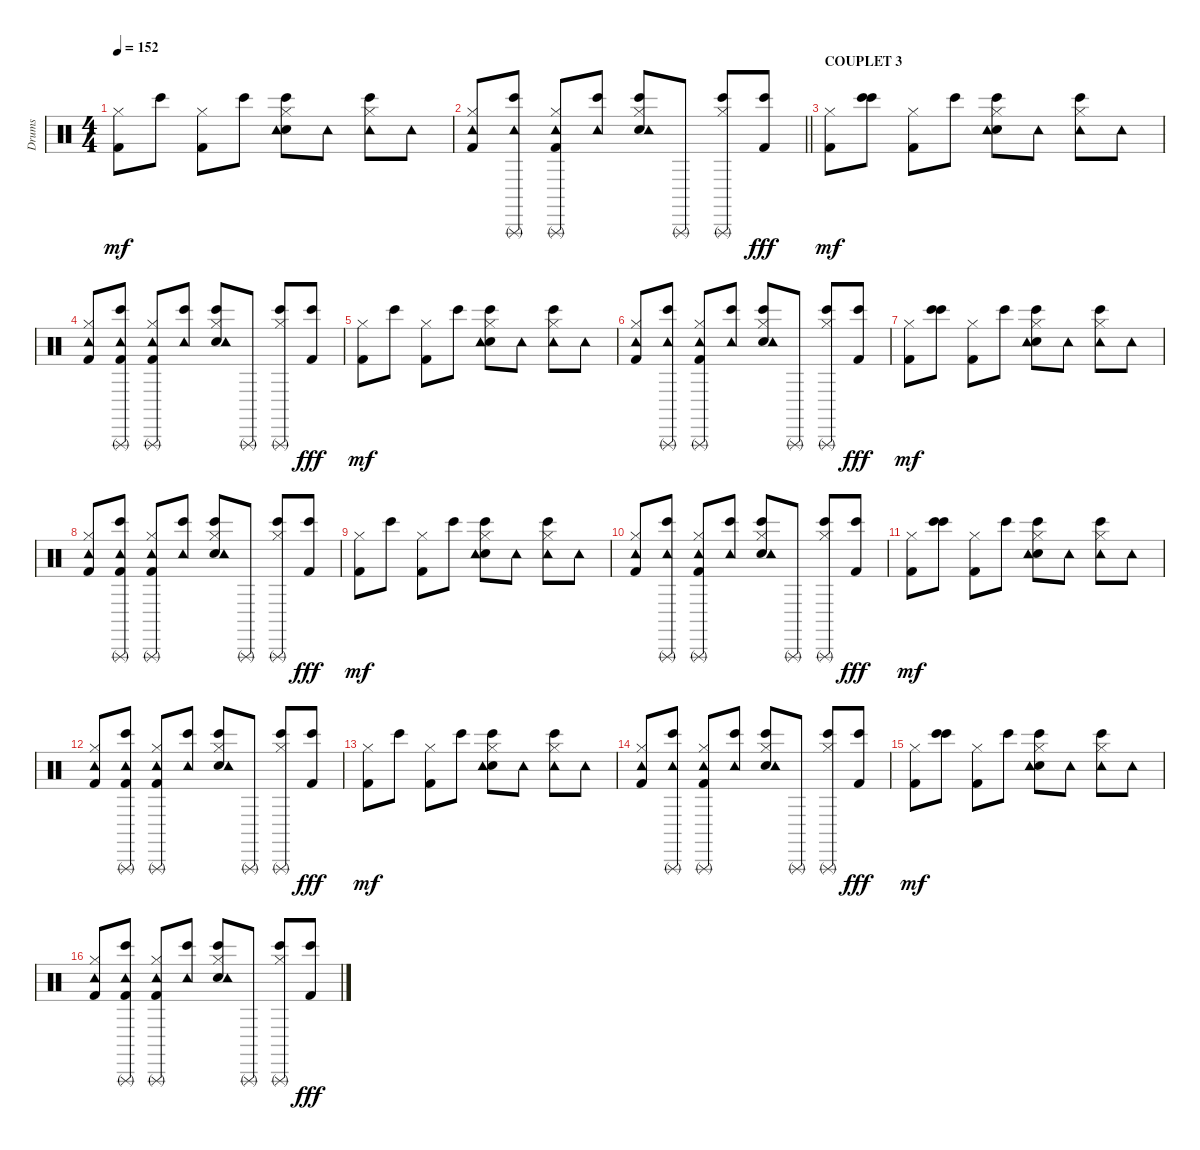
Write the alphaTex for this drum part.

\track ("Drums" "Drums") {instrument percussion}
\staff {score}
\articulation defaults
\ts (4 4)
\tempo 152
\clef neutral
\ks c
("Kick (hit) 2" "Hi-Hat (closed)").8{dy mf} "Bongo High (hit)".8 ("Kick (hit) 2" "Hi-Hat (closed)").8 "Bongo High (hit)".8 ("Bongo High (hit)" "Electric Snare (hit)" "Hi-Hat (closed)" "Tambourine (hit)").8 "Tambourine (hit)".8 ("Tambourine (hit)" "Bongo High (hit)" "Hi-Hat (closed)").8 "Tambourine (hit)".8 |
\barLineRight lightlight
("Tambourine (hit)" "Kick (hit) 2" "Hi-Hat (closed)").8 ("Tambourine (hit)" "Bongo High (hit)" "Triangle (rnute)").8 ("Kick (hit) 2" "Hi-Hat (closed)" "Triangle (rnute)" "Tambourine (hit)").8 ("Tambourine (hit)" "Bongo High (hit)").8 ("Bongo High (hit)" "Electric Snare (hit)" "Hi-Hat (closed)" "Tambourine (hit)").8 "Triangle (rnute)".8 ("Bongo High (hit)" "Hi-Hat (closed)" "Triangle (rnute)").8 ("Bongo High (hit)" "Kick (hit) 2").8{dy fff} |
\section ("" "COUPLET 3")
("Kick (hit) 2" "Hi-Hat (closed)").8{dy mf} ("Bongo High (hit)" "Bongo High (hit)").8 ("Kick (hit) 2" "Hi-Hat (closed)").8 "Bongo High (hit)".8 ("Bongo High (hit)" "Electric Snare (hit)" "Hi-Hat (closed)" "Tambourine (hit)").8 "Tambourine (hit)".8 ("Tambourine (hit)" "Bongo High (hit)" "Hi-Hat (closed)").8 "Tambourine (hit)".8 |
("Tambourine (hit)" "Kick (hit) 2" "Hi-Hat (closed)").8 ("Tambourine (hit)" "Bongo High (hit)" "Kick (hit) 2" "Triangle (rnute)").8 ("Kick (hit) 2" "Hi-Hat (closed)" "Triangle (rnute)" "Tambourine (hit)").8 ("Tambourine (hit)" "Bongo High (hit)").8 ("Bongo High (hit)" "Electric Snare (hit)" "Hi-Hat (closed)" "Tambourine (hit)").8 "Triangle (rnute)".8 ("Bongo High (hit)" "Hi-Hat (closed)" "Triangle (rnute)").8 ("Bongo High (hit)" "Kick (hit) 2").8{dy fff} |
("Kick (hit) 2" "Hi-Hat (closed)").8{dy mf} "Bongo High (hit)".8 ("Kick (hit) 2" "Hi-Hat (closed)").8 "Bongo High (hit)".8 ("Bongo High (hit)" "Electric Snare (hit)" "Hi-Hat (closed)" "Tambourine (hit)").8 "Tambourine (hit)".8 ("Tambourine (hit)" "Bongo High (hit)" "Hi-Hat (closed)").8 "Tambourine (hit)".8 |
("Tambourine (hit)" "Kick (hit) 2" "Hi-Hat (closed)").8 ("Tambourine (hit)" "Bongo High (hit)" "Triangle (rnute)").8 ("Kick (hit) 2" "Hi-Hat (closed)" "Triangle (rnute)" "Tambourine (hit)").8 ("Tambourine (hit)" "Bongo High (hit)").8 ("Bongo High (hit)" "Electric Snare (hit)" "Hi-Hat (closed)" "Tambourine (hit)").8 "Triangle (rnute)".8 ("Bongo High (hit)" "Hi-Hat (closed)" "Triangle (rnute)").8 ("Bongo High (hit)" "Kick (hit) 2").8{dy fff} |
("Kick (hit) 2" "Hi-Hat (closed)").8{dy mf} ("Bongo High (hit)" "Bongo High (hit)").8 ("Kick (hit) 2" "Hi-Hat (closed)").8 "Bongo High (hit)".8 ("Bongo High (hit)" "Electric Snare (hit)" "Hi-Hat (closed)" "Tambourine (hit)").8 "Tambourine (hit)".8 ("Tambourine (hit)" "Bongo High (hit)" "Hi-Hat (closed)").8 "Tambourine (hit)".8 |
("Tambourine (hit)" "Kick (hit) 2" "Hi-Hat (closed)").8 ("Tambourine (hit)" "Bongo High (hit)" "Kick (hit) 2" "Triangle (rnute)").8 ("Kick (hit) 2" "Hi-Hat (closed)" "Triangle (rnute)" "Tambourine (hit)").8 ("Tambourine (hit)" "Bongo High (hit)").8 ("Bongo High (hit)" "Electric Snare (hit)" "Hi-Hat (closed)" "Tambourine (hit)").8 "Triangle (rnute)".8 ("Bongo High (hit)" "Hi-Hat (closed)" "Triangle (rnute)").8 ("Bongo High (hit)" "Kick (hit) 2").8{dy fff} |
("Kick (hit) 2" "Hi-Hat (closed)").8{dy mf} "Bongo High (hit)".8 ("Kick (hit) 2" "Hi-Hat (closed)").8 "Bongo High (hit)".8 ("Bongo High (hit)" "Electric Snare (hit)" "Hi-Hat (closed)" "Tambourine (hit)").8 "Tambourine (hit)".8 ("Tambourine (hit)" "Bongo High (hit)" "Hi-Hat (closed)").8 "Tambourine (hit)".8 |
("Tambourine (hit)" "Kick (hit) 2" "Hi-Hat (closed)").8 ("Tambourine (hit)" "Bongo High (hit)" "Triangle (rnute)").8 ("Kick (hit) 2" "Hi-Hat (closed)" "Triangle (rnute)" "Tambourine (hit)").8 ("Tambourine (hit)" "Bongo High (hit)").8 ("Bongo High (hit)" "Electric Snare (hit)" "Hi-Hat (closed)" "Tambourine (hit)").8 "Triangle (rnute)".8 ("Bongo High (hit)" "Hi-Hat (closed)" "Triangle (rnute)").8 ("Bongo High (hit)" "Kick (hit) 2").8{dy fff} |
("Kick (hit) 2" "Hi-Hat (closed)").8{dy mf} ("Bongo High (hit)" "Bongo High (hit)").8 ("Kick (hit) 2" "Hi-Hat (closed)").8 "Bongo High (hit)".8 ("Bongo High (hit)" "Electric Snare (hit)" "Hi-Hat (closed)" "Tambourine (hit)").8 "Tambourine (hit)".8 ("Tambourine (hit)" "Bongo High (hit)" "Hi-Hat (closed)").8 "Tambourine (hit)".8 |
("Tambourine (hit)" "Kick (hit) 2" "Hi-Hat (closed)").8 ("Tambourine (hit)" "Bongo High (hit)" "Kick (hit) 2" "Triangle (rnute)").8 ("Kick (hit) 2" "Hi-Hat (closed)" "Triangle (rnute)" "Tambourine (hit)").8 ("Tambourine (hit)" "Bongo High (hit)").8 ("Bongo High (hit)" "Electric Snare (hit)" "Hi-Hat (closed)" "Tambourine (hit)").8 "Triangle (rnute)".8 ("Bongo High (hit)" "Hi-Hat (closed)" "Triangle (rnute)").8 ("Bongo High (hit)" "Kick (hit) 2").8{dy fff} |
("Kick (hit) 2" "Hi-Hat (closed)").8{dy mf} "Bongo High (hit)".8 ("Kick (hit) 2" "Hi-Hat (closed)").8 "Bongo High (hit)".8 ("Bongo High (hit)" "Electric Snare (hit)" "Hi-Hat (closed)" "Tambourine (hit)").8 "Tambourine (hit)".8 ("Tambourine (hit)" "Bongo High (hit)" "Hi-Hat (closed)").8 "Tambourine (hit)".8 |
("Tambourine (hit)" "Kick (hit) 2" "Hi-Hat (closed)").8 ("Tambourine (hit)" "Bongo High (hit)" "Triangle (rnute)").8 ("Kick (hit) 2" "Hi-Hat (closed)" "Triangle (rnute)" "Tambourine (hit)").8 ("Tambourine (hit)" "Bongo High (hit)").8 ("Bongo High (hit)" "Electric Snare (hit)" "Hi-Hat (closed)" "Tambourine (hit)").8 "Triangle (rnute)".8 ("Bongo High (hit)" "Hi-Hat (closed)" "Triangle (rnute)").8 ("Bongo High (hit)" "Kick (hit) 2").8{dy fff} |
("Kick (hit) 2" "Hi-Hat (closed)").8{dy mf} ("Bongo High (hit)" "Bongo High (hit)").8 ("Kick (hit) 2" "Hi-Hat (closed)").8 "Bongo High (hit)".8 ("Bongo High (hit)" "Electric Snare (hit)" "Hi-Hat (closed)" "Tambourine (hit)").8 "Tambourine (hit)".8 ("Tambourine (hit)" "Bongo High (hit)" "Hi-Hat (closed)").8 "Tambourine (hit)".8 |
("Tambourine (hit)" "Kick (hit) 2" "Hi-Hat (closed)").8 ("Tambourine (hit)" "Bongo High (hit)" "Kick (hit) 2" "Triangle (rnute)").8 ("Kick (hit) 2" "Hi-Hat (closed)" "Triangle (rnute)" "Tambourine (hit)").8 ("Tambourine (hit)" "Bongo High (hit)").8 ("Bongo High (hit)" "Electric Snare (hit)" "Hi-Hat (closed)" "Tambourine (hit)").8 "Triangle (rnute)".8 ("Bongo High (hit)" "Hi-Hat (closed)" "Triangle (rnute)").8 ("Bongo High (hit)" "Kick (hit) 2").8{dy fff}
